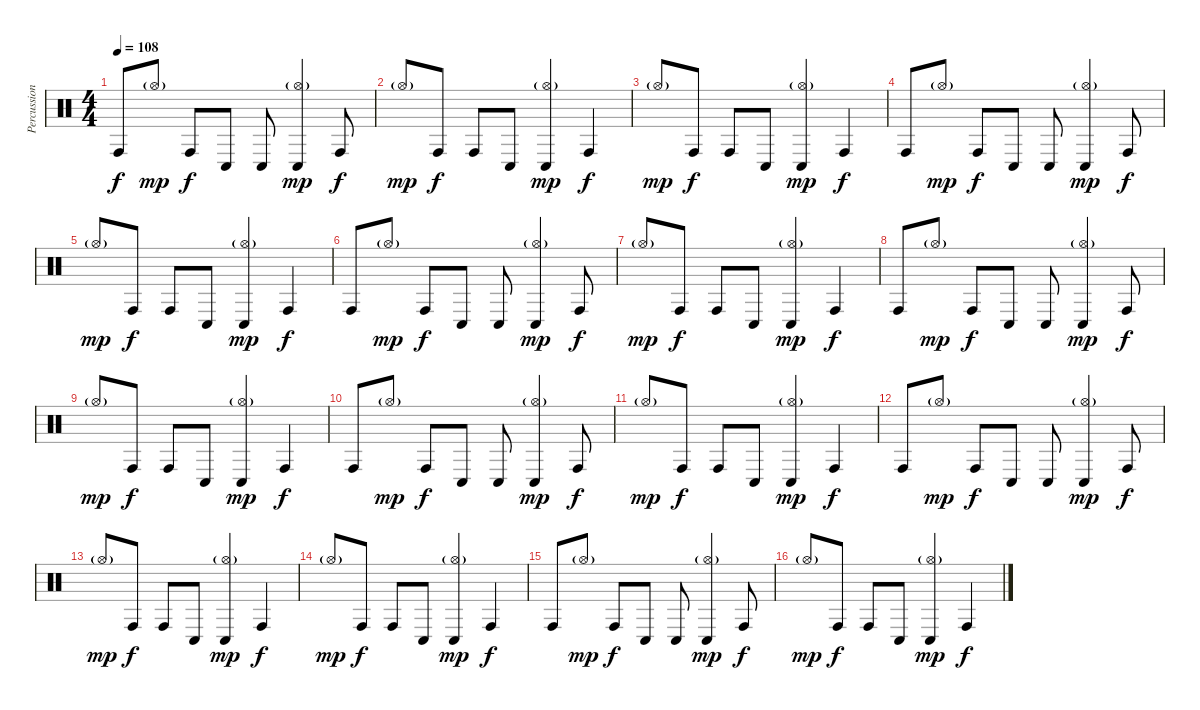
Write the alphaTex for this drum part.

\track ("Percussion" "Percussion") {instrument percussion}
\staff {score}
\articulation defaults
\ts (4 4)
\tempo 108
\clef neutral
\ks c "Conga high (hit)".8{dy f} "Hi-Hat (open)"{g}.8{dy mp} "Conga high (hit)".8{dy f} "Conga low (hit)".8 "Conga low (hit)".8
("Hi-Hat (open)"{g} "Conga low (hit)").4{dy mp} "Conga high (hit)".8{dy f} |
"Hi-Hat (open)"{g}.8{dy mp} "Conga high (hit)".8{dy f} "Conga high (hit)".8 "Conga low (hit)".8 ("Hi-Hat (open)"{g} "Conga low (hit)").4{dy mp} "Conga high (hit)".4{dy f} |
"Hi-Hat (open)"{g}.8{dy mp} "Conga high (hit)".8{dy f} "Conga high (hit)".8 "Conga low (hit)".8 ("Hi-Hat (open)"{g} "Conga low (hit)").4{dy mp} "Conga high (hit)".4{dy f} |
"Conga high (hit)".8 "Hi-Hat (open)"{g}.8{dy mp} "Conga high (hit)".8{dy f} "Conga low (hit)".8 "Conga low (hit)".8 ("Hi-Hat (open)"{g} "Conga low (hit)").4{dy mp} "Conga high (hit)".8{dy f} |
"Hi-Hat (open)"{g}.8{dy mp} "Conga high (hit)".8{dy f} "Conga high (hit)".8 "Conga low (hit)".8 ("Hi-Hat (open)"{g} "Conga low (hit)").4{dy mp} "Conga high (hit)".4{dy f} |
"Conga high (hit)".8 "Hi-Hat (open)"{g}.8{dy mp} "Conga high (hit)".8{dy f} "Conga low (hit)".8 "Conga low (hit)".8 ("Hi-Hat (open)"{g} "Conga low (hit)").4{dy mp} "Conga high (hit)".8{dy f} |
"Hi-Hat (open)"{g}.8{dy mp} "Conga high (hit)".8{dy f} "Conga high (hit)".8 "Conga low (hit)".8 ("Hi-Hat (open)"{g} "Conga low (hit)").4{dy mp} "Conga high (hit)".4{dy f} |
"Conga high (hit)".8 "Hi-Hat (open)"{g}.8{dy mp} "Conga high (hit)".8{dy f} "Conga low (hit)".8 "Conga low (hit)".8 ("Hi-Hat (open)"{g} "Conga low (hit)").4{dy mp} "Conga high (hit)".8{dy f} |
"Hi-Hat (open)"{g}.8{dy mp} "Conga high (hit)".8{dy f} "Conga high (hit)".8 "Conga low (hit)".8 ("Hi-Hat (open)"{g} "Conga low (hit)").4{dy mp} "Conga high (hit)".4{dy f} |
"Conga high (hit)".8 "Hi-Hat (open)"{g}.8{dy mp} "Conga high (hit)".8{dy f} "Conga low (hit)".8 "Conga low (hit)".8 ("Hi-Hat (open)"{g} "Conga low (hit)").4{dy mp} "Conga high (hit)".8{dy f} |
"Hi-Hat (open)"{g}.8{dy mp} "Conga high (hit)".8{dy f} "Conga high (hit)".8 "Conga low (hit)".8 ("Hi-Hat (open)"{g} "Conga low (hit)").4{dy mp} "Conga high (hit)".4{dy f} |
"Conga high (hit)".8 "Hi-Hat (open)"{g}.8{dy mp} "Conga high (hit)".8{dy f} "Conga low (hit)".8 "Conga low (hit)".8 ("Hi-Hat (open)"{g} "Conga low (hit)").4{dy mp} "Conga high (hit)".8{dy f} |
"Hi-Hat (open)"{g}.8{dy mp} "Conga high (hit)".8{dy f} "Conga high (hit)".8 "Conga low (hit)".8 ("Hi-Hat (open)"{g} "Conga low (hit)").4{dy mp} "Conga high (hit)".4{dy f} |
"Hi-Hat (open)"{g}.8{dy mp} "Conga high (hit)".8{dy f} "Conga high (hit)".8 "Conga low (hit)".8 ("Hi-Hat (open)"{g} "Conga low (hit)").4{dy mp} "Conga high (hit)".4{dy f} |
"Conga high (hit)".8 "Hi-Hat (open)"{g}.8{dy mp} "Conga high (hit)".8{dy f} "Conga low (hit)".8 "Conga low (hit)".8 ("Hi-Hat (open)"{g} "Conga low (hit)").4{dy mp} "Conga high (hit)".8{dy f} |
"Hi-Hat (open)"{g}.8{dy mp} "Conga high (hit)".8{dy f} "Conga high (hit)".8 "Conga low (hit)".8 ("Hi-Hat (open)"{g} "Conga low (hit)").4{dy mp} "Conga high (hit)".4{dy f}
